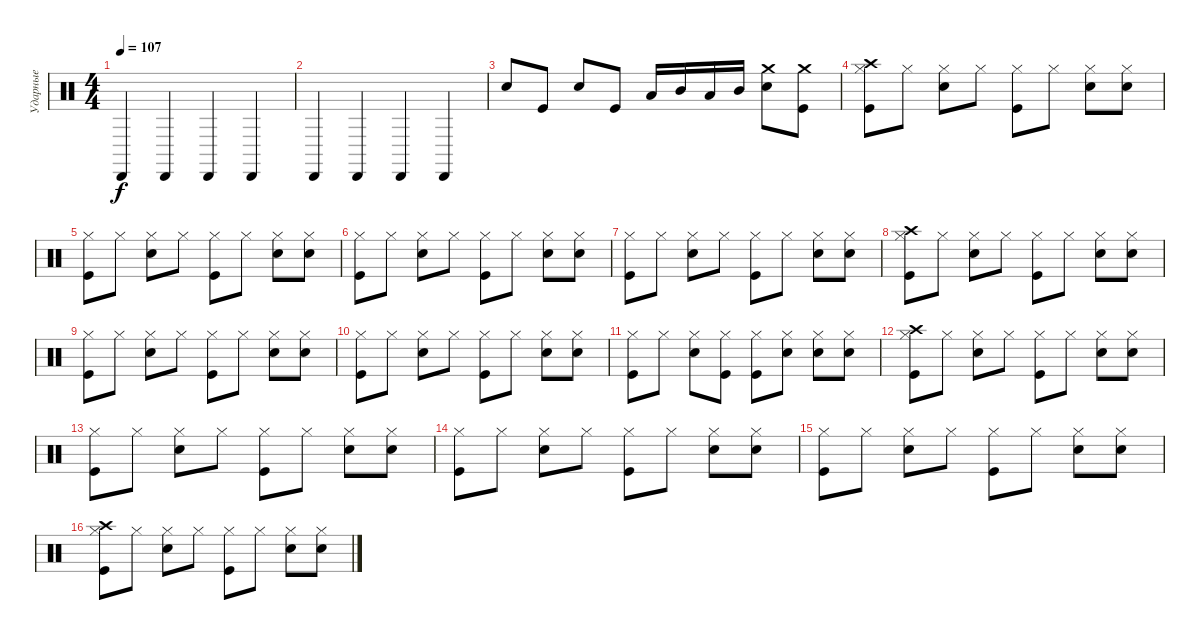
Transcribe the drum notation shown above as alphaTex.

\track ("Ударные" "Ударные") {instrument percussion}
\staff {score}
\articulation defaults
\ts (4 4)
\tempo 107
\clef neutral
\ks c "Cabasa (hit)".4{dy f} "Cabasa (hit)".4 "Cabasa (hit)".4 "Cabasa (hit)".4
|
"Cabasa (hit)".4 "Cabasa (hit)".4 "Cabasa (hit)".4 "Cabasa (hit)".4 |
"Electric Snare (hit)".8 "Kick (hit)".8 "Electric Snare (hit)".8 "Kick (hit)".8 "Low Tom (hit)".16 "Mid Tom (hit)".16 "Low Tom (hit)".16 "Mid Tom (hit)".16 ("Crash medium (hit)" "Electric Snare (hit)").8 ("Crash medium (hit)" "Kick (hit)").8 |
("Crash high (hit)" "Hi-Hat (closed)" "Kick (hit)").8 "Hi-Hat (closed)".8 ("Hi-Hat (closed)" "Electric Snare (hit)").8 "Hi-Hat (closed)".8 ("Hi-Hat (closed)" "Kick (hit)").8 "Hi-Hat (closed)".8 ("Hi-Hat (closed)" "Electric Snare (hit)").8 ("Hi-Hat (closed)" "Electric Snare (hit)").8 |
("Hi-Hat (closed)" "Kick (hit)").8 "Hi-Hat (closed)".8 ("Hi-Hat (closed)" "Electric Snare (hit)").8 "Hi-Hat (closed)".8 ("Hi-Hat (closed)" "Kick (hit)").8 "Hi-Hat (closed)".8 ("Hi-Hat (closed)" "Electric Snare (hit)").8 ("Hi-Hat (closed)" "Electric Snare (hit)").8 |
("Hi-Hat (closed)" "Kick (hit)").8 "Hi-Hat (closed)".8 ("Hi-Hat (closed)" "Electric Snare (hit)").8 "Hi-Hat (closed)".8 ("Hi-Hat (closed)" "Kick (hit)").8 "Hi-Hat (closed)".8 ("Hi-Hat (closed)" "Electric Snare (hit)").8 ("Hi-Hat (closed)" "Electric Snare (hit)").8 |
("Hi-Hat (closed)" "Kick (hit)").8 "Hi-Hat (closed)".8 ("Hi-Hat (closed)" "Electric Snare (hit)").8 "Hi-Hat (closed)".8 ("Hi-Hat (closed)" "Kick (hit)").8 "Hi-Hat (closed)".8 ("Hi-Hat (closed)" "Electric Snare (hit)").8 ("Hi-Hat (closed)" "Electric Snare (hit)").8 |
("Crash high (hit)" "Hi-Hat (closed)" "Kick (hit)").8 "Hi-Hat (closed)".8 ("Hi-Hat (closed)" "Electric Snare (hit)").8 "Hi-Hat (closed)".8 ("Hi-Hat (closed)" "Kick (hit)").8 "Hi-Hat (closed)".8 ("Hi-Hat (closed)" "Electric Snare (hit)").8 ("Hi-Hat (closed)" "Electric Snare (hit)").8 |
("Hi-Hat (closed)" "Kick (hit)").8 "Hi-Hat (closed)".8 ("Hi-Hat (closed)" "Electric Snare (hit)").8 "Hi-Hat (closed)".8 ("Hi-Hat (closed)" "Kick (hit)").8 "Hi-Hat (closed)".8 ("Hi-Hat (closed)" "Electric Snare (hit)").8 ("Hi-Hat (closed)" "Electric Snare (hit)").8 |
("Hi-Hat (closed)" "Kick (hit)").8 "Hi-Hat (closed)".8 ("Hi-Hat (closed)" "Electric Snare (hit)").8 "Hi-Hat (closed)".8 ("Hi-Hat (closed)" "Kick (hit)").8 "Hi-Hat (closed)".8 ("Hi-Hat (closed)" "Electric Snare (hit)").8 ("Hi-Hat (closed)" "Electric Snare (hit)").8 |
("Hi-Hat (closed)" "Kick (hit)").8 "Hi-Hat (closed)".8 ("Hi-Hat (closed)" "Electric Snare (hit)").8 ("Hi-Hat (closed)" "Kick (hit)").8 ("Hi-Hat (closed)" "Kick (hit)").8 ("Hi-Hat (closed)" "Electric Snare (hit)").8 ("Hi-Hat (closed)" "Electric Snare (hit)").8 ("Hi-Hat (closed)" "Electric Snare (hit)").8 |
("Crash high (hit)" "Hi-Hat (closed)" "Kick (hit)").8 "Hi-Hat (closed)".8 ("Hi-Hat (closed)" "Electric Snare (hit)").8 "Hi-Hat (closed)".8 ("Hi-Hat (closed)" "Kick (hit)").8 "Hi-Hat (closed)".8 ("Hi-Hat (closed)" "Electric Snare (hit)").8 ("Hi-Hat (closed)" "Electric Snare (hit)").8 |
("Hi-Hat (closed)" "Kick (hit)").8 "Hi-Hat (closed)".8 ("Hi-Hat (closed)" "Electric Snare (hit)").8 "Hi-Hat (closed)".8 ("Hi-Hat (closed)" "Kick (hit)").8 "Hi-Hat (closed)".8 ("Hi-Hat (closed)" "Electric Snare (hit)").8 ("Hi-Hat (closed)" "Electric Snare (hit)").8 |
("Hi-Hat (closed)" "Kick (hit)").8 "Hi-Hat (closed)".8 ("Hi-Hat (closed)" "Electric Snare (hit)").8 "Hi-Hat (closed)".8 ("Hi-Hat (closed)" "Kick (hit)").8 "Hi-Hat (closed)".8 ("Hi-Hat (closed)" "Electric Snare (hit)").8 ("Hi-Hat (closed)" "Electric Snare (hit)").8 |
("Hi-Hat (closed)" "Kick (hit)").8 "Hi-Hat (closed)".8 ("Hi-Hat (closed)" "Electric Snare (hit)").8 "Hi-Hat (closed)".8 ("Hi-Hat (closed)" "Kick (hit)").8 "Hi-Hat (closed)".8 ("Hi-Hat (closed)" "Electric Snare (hit)").8 ("Hi-Hat (closed)" "Electric Snare (hit)").8 |
("Crash high (hit)" "Hi-Hat (closed)" "Kick (hit)").8 "Hi-Hat (closed)".8 ("Hi-Hat (closed)" "Electric Snare (hit)").8 "Hi-Hat (closed)".8 ("Hi-Hat (closed)" "Kick (hit)").8 "Hi-Hat (closed)".8 ("Hi-Hat (closed)" "Electric Snare (hit)").8 ("Hi-Hat (closed)" "Electric Snare (hit)").8
